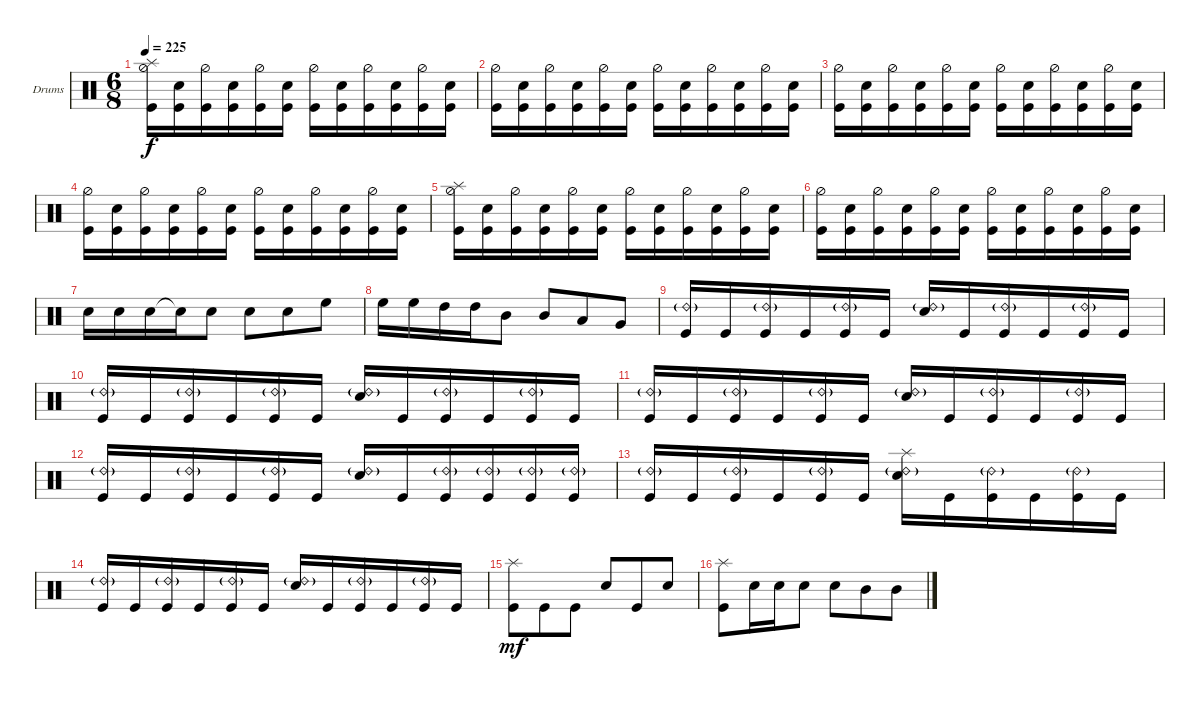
\bracketExtendMode groupsimilarinstruments
\firstSystemTrackNameOrientation horizontal
\otherSystemsTrackNameOrientation horizontal
\track ("Drumkit" "Drums") {solo instrument percussion}
\staff {score}
\articulation defaults
\ts (6 8)
\tempo 225
\clef neutral
\ks c
("Kick (hit)" "Hi-Hat (half)" "Splash (hit)").16{dy f} ("Kick (hit)" "Snare (hit) 2").16 ("Kick (hit)" "Hi-Hat (half)").16 ("Kick (hit)" "Snare (hit) 2").16 ("Kick (hit)" "Hi-Hat (half)").16 ("Kick (hit)" "Snare (hit) 2").16 ("Kick (hit)" "Hi-Hat (half)").16 ("Kick (hit)" "Snare (hit) 2").16 ("Kick (hit)" "Hi-Hat (half)").16 ("Kick (hit)" "Snare (hit) 2").16 ("Kick (hit)" "Hi-Hat (half)").16 ("Kick (hit)" "Snare (hit) 2").16 |
("Kick (hit)" "Hi-Hat (half)").16 ("Kick (hit)" "Snare (hit) 2").16 ("Kick (hit)" "Hi-Hat (half)").16 ("Kick (hit)" "Snare (hit) 2").16 ("Kick (hit)" "Hi-Hat (half)").16 ("Kick (hit)" "Snare (hit) 2").16 ("Kick (hit)" "Hi-Hat (half)").16 ("Kick (hit)" "Snare (hit) 2").16 ("Kick (hit)" "Hi-Hat (half)").16 ("Kick (hit)" "Snare (hit) 2").16 ("Kick (hit)" "Hi-Hat (half)").16 ("Kick (hit)" "Snare (hit) 2").16 |
("Kick (hit)" "Hi-Hat (half)").16 ("Kick (hit)" "Snare (hit) 2").16 ("Kick (hit)" "Hi-Hat (half)").16 ("Kick (hit)" "Snare (hit) 2").16 ("Kick (hit)" "Hi-Hat (half)").16 ("Kick (hit)" "Snare (hit) 2").16 ("Kick (hit)" "Hi-Hat (half)").16 ("Kick (hit)" "Snare (hit) 2").16 ("Kick (hit)" "Hi-Hat (half)").16 ("Kick (hit)" "Snare (hit) 2").16 ("Kick (hit)" "Hi-Hat (half)").16 ("Kick (hit)" "Snare (hit) 2").16 |
("Kick (hit)" "Hi-Hat (half)").16 ("Kick (hit)" "Snare (hit) 2").16 ("Kick (hit)" "Hi-Hat (half)").16 ("Kick (hit)" "Snare (hit) 2").16 ("Kick (hit)" "Hi-Hat (half)").16 ("Kick (hit)" "Snare (hit) 2").16 ("Kick (hit)" "Hi-Hat (half)").16 ("Kick (hit)" "Snare (hit) 2").16 ("Kick (hit)" "Hi-Hat (half)").16 ("Kick (hit)" "Snare (hit) 2").16 ("Kick (hit)" "Hi-Hat (half)").16 ("Kick (hit)" "Snare (hit) 2").16 |
("Kick (hit)" "Hi-Hat (half)" "Splash (hit)").16 ("Kick (hit)" "Snare (hit) 2").16 ("Kick (hit)" "Hi-Hat (half)").16 ("Kick (hit)" "Snare (hit) 2").16 ("Kick (hit)" "Hi-Hat (half)").16 ("Kick (hit)" "Snare (hit) 2").16 ("Kick (hit)" "Hi-Hat (half)").16 ("Kick (hit)" "Snare (hit) 2").16 ("Kick (hit)" "Hi-Hat (half)").16 ("Kick (hit)" "Snare (hit) 2").16 ("Kick (hit)" "Hi-Hat (half)").16 ("Kick (hit)" "Snare (hit) 2").16 |
("Kick (hit)" "Hi-Hat (half)").16 ("Kick (hit)" "Snare (hit) 2").16 ("Kick (hit)" "Hi-Hat (half)").16 ("Kick (hit)" "Snare (hit) 2").16 ("Kick (hit)" "Hi-Hat (half)").16 ("Kick (hit)" "Snare (hit) 2").16 ("Kick (hit)" "Hi-Hat (half)").16 ("Kick (hit)" "Snare (hit) 2").16 ("Kick (hit)" "Hi-Hat (half)").16 ("Kick (hit)" "Snare (hit) 2").16 ("Kick (hit)" "Hi-Hat (half)").16 ("Kick (hit)" "Snare (hit) 2").16 |
"Snare (hit) 2".16 "Snare (hit) 2".16 "Snare (hit) 2".16 "Snare (hit) 2"{t}.16 "Snare (hit) 2".8 "Snare (hit) 2".8 "Snare (hit) 2".8 "High Floor Tom (hit)".8 |
"High Floor Tom (hit)".16 "High Floor Tom (hit)".16 "High Tom (hit)".16 "High Tom (hit)".16 "Mid Tom (hit)".8 "Mid Tom (hit)".8 "Low Tom (hit)".8 "Very Low Tom (hit)".8 |
("Kick (hit)" "Ride (bell) 2"{g}).16 "Kick (hit)".16 ("Kick (hit)" "Ride (bell) 2"{g}).16 "Kick (hit)".16 ("Kick (hit)" "Ride (bell) 2"{g}).16 "Kick (hit)".16 ("Snare (hit) 2" "Ride (bell) 2"{g}).16 "Kick (hit)".16 ("Kick (hit)" "Ride (bell) 2"{g}).16 "Kick (hit)".16 ("Kick (hit)" "Ride (bell) 2"{g}).16 "Kick (hit)".16 |
("Kick (hit)" "Ride (bell) 2"{g}).16 "Kick (hit)".16 ("Kick (hit)" "Ride (bell) 2"{g}).16 "Kick (hit)".16 ("Kick (hit)" "Ride (bell) 2"{g}).16 "Kick (hit)".16 ("Snare (hit) 2" "Ride (bell) 2"{g}).16 "Kick (hit)".16 ("Kick (hit)" "Ride (bell) 2"{g}).16 "Kick (hit)".16 ("Kick (hit)" "Ride (bell) 2"{g}).16 "Kick (hit)".16 |
("Kick (hit)" "Ride (bell) 2"{g}).16 "Kick (hit)".16 ("Kick (hit)" "Ride (bell) 2"{g}).16 "Kick (hit)".16 ("Kick (hit)" "Ride (bell) 2"{g}).16 "Kick (hit)".16 ("Snare (hit) 2" "Ride (bell) 2"{g}).16 "Kick (hit)".16 ("Kick (hit)" "Ride (bell) 2"{g}).16 "Kick (hit)".16 ("Kick (hit)" "Ride (bell) 2"{g}).16 "Kick (hit)".16 |
("Kick (hit)" "Ride (bell) 2"{g}).16 "Kick (hit)".16 ("Kick (hit)" "Ride (bell) 2"{g}).16 "Kick (hit)".16 ("Kick (hit)" "Ride (bell) 2"{g}).16 "Kick (hit)".16 ("Snare (hit) 2" "Ride (bell) 2"{g}).16 "Kick (hit)".16 ("Kick (hit)" "Ride (bell) 2"{g}).16 ("Kick (hit)" "Ride (bell) 2"{g}).16 ("Kick (hit)" "Ride (bell) 2"{g}).16 ("Kick (hit)" "Ride (bell) 2"{g}).16 |
("Kick (hit)" "Ride (bell) 2"{g}).16 "Kick (hit)".16 ("Kick (hit)" "Ride (bell) 2"{g}).16 "Kick (hit)".16 ("Kick (hit)" "Ride (bell) 2"{g}).16 "Kick (hit)".16 ("Snare (hit) 2" "Ride (bell) 2"{g} "Splash (hit)").16 "Kick (hit)".16 ("Kick (hit)" "Ride (bell) 2"{g}).16 "Kick (hit)".16 ("Kick (hit)" "Ride (bell) 2"{g}).16 "Kick (hit)".16 |
("Kick (hit)" "Ride (bell) 2"{g}).16 "Kick (hit)".16 ("Kick (hit)" "Ride (bell) 2"{g}).16 "Kick (hit)".16 ("Kick (hit)" "Ride (bell) 2"{g}).16 "Kick (hit)".16 ("Snare (hit) 2" "Ride (bell) 2"{g}).16 "Kick (hit)".16 ("Kick (hit)" "Ride (bell) 2"{g}).16 "Kick (hit)".16 ("Kick (hit)" "Ride (bell) 2"{g}).16 "Kick (hit)".16 |
("Kick (hit)" "Splash (hit)").8{dy mf} "Kick (hit)".8 "Kick (hit)".8 "Snare (hit) 2".8 "Kick (hit)".8 "Snare (hit) 2".8 |
("Kick (hit)" "Splash (hit)").8 "Snare (hit) 2".16 "Snare (hit) 2".16 "Snare (hit) 2".8 "Snare (hit) 2".8 "Mid Tom (hit)".8 "Mid Tom (hit)".8
